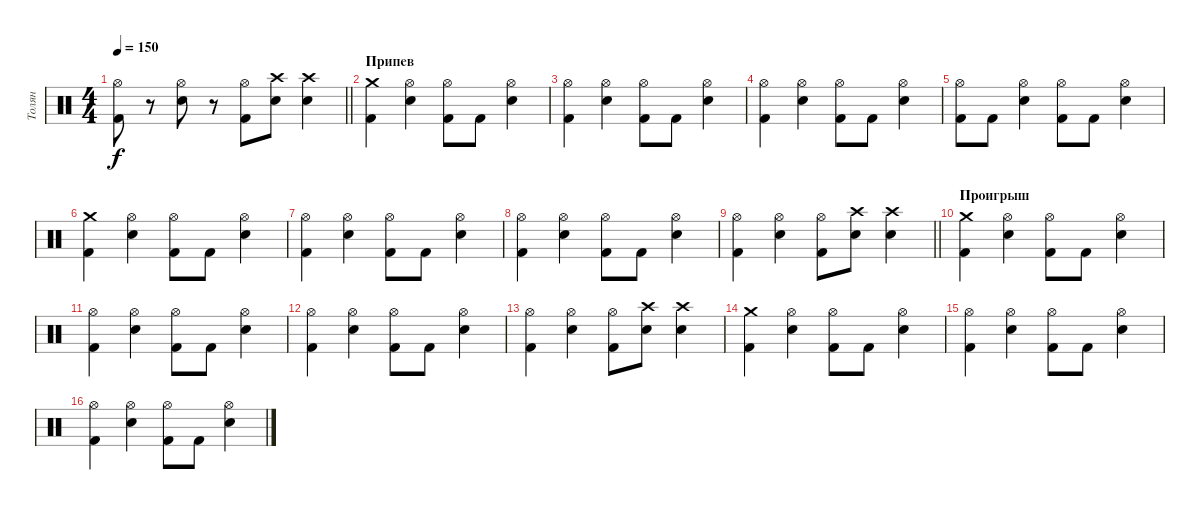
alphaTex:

\track ("Толян" "Толян") {instrument percussion}
\staff {score}
\articulation defaults
\ts (4 4)
\tempo 150
\clef neutral
\barLineRight lightlight
\ks c
("Hi-Hat (open)" "Kick (hit) 2").8{dy f} r.8 ("Hi-Hat (open)" "Electric Snare (hit)").8 r.8 ("Hi-Hat (open)" "Kick (hit) 2").8 ("Electric Snare (hit)" "Crash high (hit)").8 ("Electric Snare (hit)" "Crash high (hit)").4 |
\section ("" "Припев")
("Kick (hit) 2" "Crash medium (hit)").4 ("Electric Snare (hit)" "Hi-Hat (open)").4 ("Kick (hit) 2" "Hi-Hat (open)").8 "Kick (hit) 2".8 ("Electric Snare (hit)" "Hi-Hat (open)").4 |
("Kick (hit) 2" "Hi-Hat (open)").4 ("Electric Snare (hit)" "Hi-Hat (open)").4 ("Kick (hit) 2" "Hi-Hat (open)").8 "Kick (hit) 2".8 ("Electric Snare (hit)" "Hi-Hat (open)").4 |
("Kick (hit) 2" "Hi-Hat (open)").4 ("Electric Snare (hit)" "Hi-Hat (open)").4 ("Kick (hit) 2" "Hi-Hat (open)").8 "Kick (hit) 2".8 ("Electric Snare (hit)" "Hi-Hat (open)").4 |
("Kick (hit) 2" "Hi-Hat (open)").8 "Kick (hit) 2".8 ("Electric Snare (hit)" "Hi-Hat (open)").4 ("Kick (hit) 2" "Hi-Hat (open)").8 "Kick (hit) 2".8 ("Electric Snare (hit)" "Hi-Hat (open)").4 |
("Kick (hit) 2" "Crash medium (hit)").4 ("Electric Snare (hit)" "Hi-Hat (open)").4 ("Kick (hit) 2" "Hi-Hat (open)").8 "Kick (hit) 2".8 ("Electric Snare (hit)" "Hi-Hat (open)").4 |
("Kick (hit) 2" "Hi-Hat (open)").4 ("Electric Snare (hit)" "Hi-Hat (open)").4 ("Kick (hit) 2" "Hi-Hat (open)").8 "Kick (hit) 2".8 ("Electric Snare (hit)" "Hi-Hat (open)").4 |
("Kick (hit) 2" "Hi-Hat (open)").4 ("Electric Snare (hit)" "Hi-Hat (open)").4 ("Kick (hit) 2" "Hi-Hat (open)").8 "Kick (hit) 2".8 ("Electric Snare (hit)" "Hi-Hat (open)").4 |
\barLineRight lightlight
("Kick (hit) 2" "Hi-Hat (open)").4 ("Electric Snare (hit)" "Hi-Hat (open)").4 ("Kick (hit) 2" "Hi-Hat (open)").8 ("Electric Snare (hit)" "Crash high (hit)").8 ("Electric Snare (hit)" "Crash high (hit)").4 |
\section ("" "Проигрыш")
("Kick (hit) 2" "Crash medium (hit)").4 ("Electric Snare (hit)" "Hi-Hat (open)").4 ("Kick (hit) 2" "Hi-Hat (open)").8 "Kick (hit) 2".8 ("Electric Snare (hit)" "Hi-Hat (open)").4 |
("Kick (hit) 2" "Hi-Hat (open)").4 ("Electric Snare (hit)" "Hi-Hat (open)").4 ("Kick (hit) 2" "Hi-Hat (open)").8 "Kick (hit) 2".8 ("Electric Snare (hit)" "Hi-Hat (open)").4 |
("Kick (hit) 2" "Hi-Hat (open)").4 ("Electric Snare (hit)" "Hi-Hat (open)").4 ("Kick (hit) 2" "Hi-Hat (open)").8 "Kick (hit) 2".8 ("Electric Snare (hit)" "Hi-Hat (open)").4 |
("Kick (hit) 2" "Hi-Hat (open)").4 ("Electric Snare (hit)" "Hi-Hat (open)").4 ("Kick (hit) 2" "Hi-Hat (open)").8 ("Electric Snare (hit)" "Crash high (hit)").8 ("Electric Snare (hit)" "Crash high (hit)").4 |
("Kick (hit) 2" "Crash medium (hit)").4 ("Electric Snare (hit)" "Hi-Hat (open)").4 ("Kick (hit) 2" "Hi-Hat (open)").8 "Kick (hit) 2".8 ("Electric Snare (hit)" "Hi-Hat (open)").4 |
("Kick (hit) 2" "Hi-Hat (open)").4 ("Electric Snare (hit)" "Hi-Hat (open)").4 ("Kick (hit) 2" "Hi-Hat (open)").8 "Kick (hit) 2".8 ("Electric Snare (hit)" "Hi-Hat (open)").4 |
("Kick (hit) 2" "Hi-Hat (open)").4 ("Electric Snare (hit)" "Hi-Hat (open)").4 ("Kick (hit) 2" "Hi-Hat (open)").8 "Kick (hit) 2".8 ("Electric Snare (hit)" "Hi-Hat (open)").4
